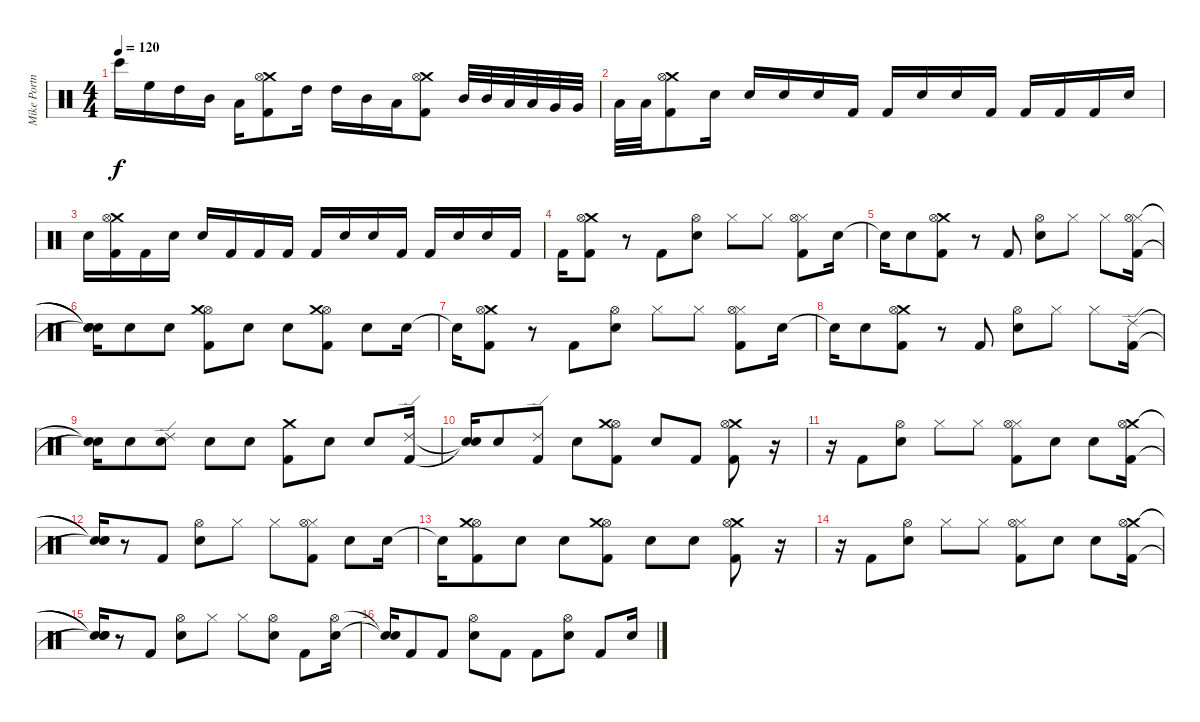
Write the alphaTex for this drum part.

\track ("Mike Portnoy - Batterie" "Mike Portn") {instrument percussion}
\staff {score}
\articulation defaults
\ts (4 4)
\tempo 120
\clef neutral
\ks c "Bongo High (hit)".16{dy f} "High Floor Tom (hit)".16 "High Tom (hit)".16 "Mid Tom (hit)".16 "Low Tom (hit)".16
("Crash medium (hit)" "Hi-Hat (open)" "Kick (hit) 2").8 "High Tom (hit)".16 "High Tom (hit)".16 "Mid Tom (hit)".16 "Low Tom (hit)".16 ("Crash medium (hit)" "Hi-Hat (open)" "Kick (hit) 2").8 "Mid Tom (hit)".32 "Mid Tom (hit)".32 "Low Tom (hit)".32 "Low Tom (hit)".32 "Very Low Tom (hit)".32 "Very Low Tom (hit)".32 |
"Low Floor Tom (hit)".32 "Low Floor Tom (hit)".32 ("Crash medium (hit)" "Hi-Hat (open)" "Kick (hit) 2").8 "Electric Snare (hit)".16 "Electric Snare (hit)".16 "Electric Snare (hit)".16 "Electric Snare (hit)".16 "Kick (hit) 2".16 "Kick (hit) 2".16 "Electric Snare (hit)".16 "Electric Snare (hit)".16 "Kick (hit) 2".16 "Kick (hit) 2".16 "Kick (hit) 2".16 "Kick (hit) 2".16 "Electric Snare (hit)".16 |
"Electric Snare (hit)".16 ("Kick (hit) 2" "Crash medium (hit)" "Hi-Hat (open)").16 "Kick (hit) 2".16 "Electric Snare (hit)".16 "Electric Snare (hit)".16 "Kick (hit) 2".16 "Kick (hit) 2".16 "Kick (hit) 2".16 "Kick (hit) 2".16 "Electric Snare (hit)".16 "Electric Snare (hit)".16 "Kick (hit) 2".16 "Kick (hit) 2".16 "Electric Snare (hit)".16 "Electric Snare (hit)".16 "Kick (hit) 2".16 |
"Kick (hit) 2".16 ("Crash medium (hit)" "Hi-Hat (open)" "Kick (hit) 2").8 r.8 "Kick (hit) 2".8 ("Hi-Hat (open)" "Electric Snare (hit)").8 "Hi-Hat (closed)".8 "Hi-Hat (closed)".8 ("Hi-Hat (closed)" "Hi-Hat (open)" "Kick (hit) 2").8 "Electric Snare (hit)".16 |
"Snare (hit)"{t}.16 "Electric Snare (hit)".8 ("Crash medium (hit)" "Hi-Hat (open)" "Kick (hit) 2").8 r.8 "Kick (hit) 2".8 ("Hi-Hat (open)" "Electric Snare (hit)").8 "Hi-Hat (closed)".8 "Hi-Hat (closed)".8 ("Hi-Hat (closed)" "Hi-Hat (open)" "Kick (hit) 2").16 |
("Snare (hit)"{t} "Snare (hit)"{t} "Snare (hit)"{t}).16 "Electric Snare (hit)".8 "Electric Snare (hit)".8 ("Hi-Hat (open)" "Crash medium (hit)" "Kick (hit) 2").8 "Electric Snare (hit)".8 "Electric Snare (hit)".8 ("Hi-Hat (open)" "Crash medium (hit)" "Kick (hit) 2").8 "Electric Snare (hit)".8 "Electric Snare (hit)".16 |
"Snare (hit)"{t}.16 ("Crash medium (hit)" "Hi-Hat (open)" "Kick (hit) 2").8 r.8 "Kick (hit) 2".8 ("Hi-Hat (open)" "Electric Snare (hit)").8 "Hi-Hat (closed)".8 "Hi-Hat (closed)".8 ("Hi-Hat (closed)" "Hi-Hat (open)" "Kick (hit) 2").8 "Electric Snare (hit)".16 |
"Snare (hit)"{t}.16 "Electric Snare (hit)".8 ("Crash medium (hit)" "Hi-Hat (open)" "Kick (hit) 2").8 r.8 "Kick (hit) 2".8 ("Hi-Hat (open)" "Electric Snare (hit)").8 "Hi-Hat (closed)".8 "Hi-Hat (closed)".8 ("Ride (edge) 2" "Kick (hit) 2").16 |
("Snare (hit)"{t} "Snare (hit)"{t}).16 "Electric Snare (hit)".8 ("Electric Snare (hit)" "Ride (edge) 2").8 "Electric Snare (hit)".8 "Electric Snare (hit)".8 ("Crash medium (hit)" "Kick (hit) 2").8 "Electric Snare (hit)".8 "Electric Snare (hit)".8 ("Kick (hit) 2" "Ride (edge) 2").16 |
("Snare (hit)"{t} "Snare (hit)"{t}).16 "Electric Snare (hit)".8 ("Kick (hit) 2" "Ride (edge) 2").8 "Electric Snare (hit)".8 ("Kick (hit) 2" "Hi-Hat (open)" "Crash medium (hit)").8 "Electric Snare (hit)".8 "Kick (hit) 2".8 ("Crash medium (hit)" "Hi-Hat (open)" "Kick (hit) 2").8 r.16 |
r.16 "Kick (hit) 2".8 ("Hi-Hat (open)" "Electric Snare (hit)").8 "Hi-Hat (closed)".8 "Hi-Hat (closed)".8 ("Hi-Hat (closed)" "Hi-Hat (open)" "Kick (hit) 2").8 "Electric Snare (hit)".8 "Electric Snare (hit)".8 ("Crash medium (hit)" "Hi-Hat (open)" "Kick (hit) 2").16 |
("Snare (hit)"{t} "Snare (hit)"{t} "Snare (hit)"{t}).16 r.8 "Kick (hit) 2".8 ("Hi-Hat (open)" "Electric Snare (hit)").8 "Hi-Hat (closed)".8 "Hi-Hat (closed)".8 ("Hi-Hat (closed)" "Hi-Hat (open)" "Kick (hit) 2").8 "Electric Snare (hit)".8 "Electric Snare (hit)".16 |
"Snare (hit)"{t}.16 ("Hi-Hat (open)" "Crash medium (hit)" "Kick (hit) 2").8 "Electric Snare (hit)".8 "Electric Snare (hit)".8 ("Hi-Hat (open)" "Crash medium (hit)" "Kick (hit) 2").8 "Electric Snare (hit)".8 "Electric Snare (hit)".8 ("Crash medium (hit)" "Hi-Hat (open)" "Kick (hit) 2").8 r.16 |
r.16 "Kick (hit) 2".8 ("Hi-Hat (open)" "Electric Snare (hit)").8 "Hi-Hat (closed)".8 "Hi-Hat (closed)".8 ("Hi-Hat (closed)" "Hi-Hat (open)" "Kick (hit) 2").8 "Electric Snare (hit)".8 "Electric Snare (hit)".8 ("Crash medium (hit)" "Hi-Hat (open)" "Kick (hit) 2").16 |
("Snare (hit)"{t} "Snare (hit)"{t} "Snare (hit)"{t}).16 r.8 "Kick (hit) 2".8 ("Hi-Hat (open)" "Electric Snare (hit)").8 "Hi-Hat (closed)".8 "Hi-Hat (closed)".8 ("Hi-Hat (open)" "Electric Snare (hit)").8 "Kick (hit) 2".8 ("Hi-Hat (open)" "Electric Snare (hit)").16 |
("Snare (hit)"{t} "Snare (hit)"{t}).16 "Kick (hit) 2".8 "Kick (hit) 2".8 ("Hi-Hat (open)" "Electric Snare (hit)").8 "Kick (hit) 2".8 "Kick (hit) 2".8 ("Hi-Hat (open)" "Electric Snare (hit)").8 "Kick (hit) 2".8 "Electric Snare (hit)".16
